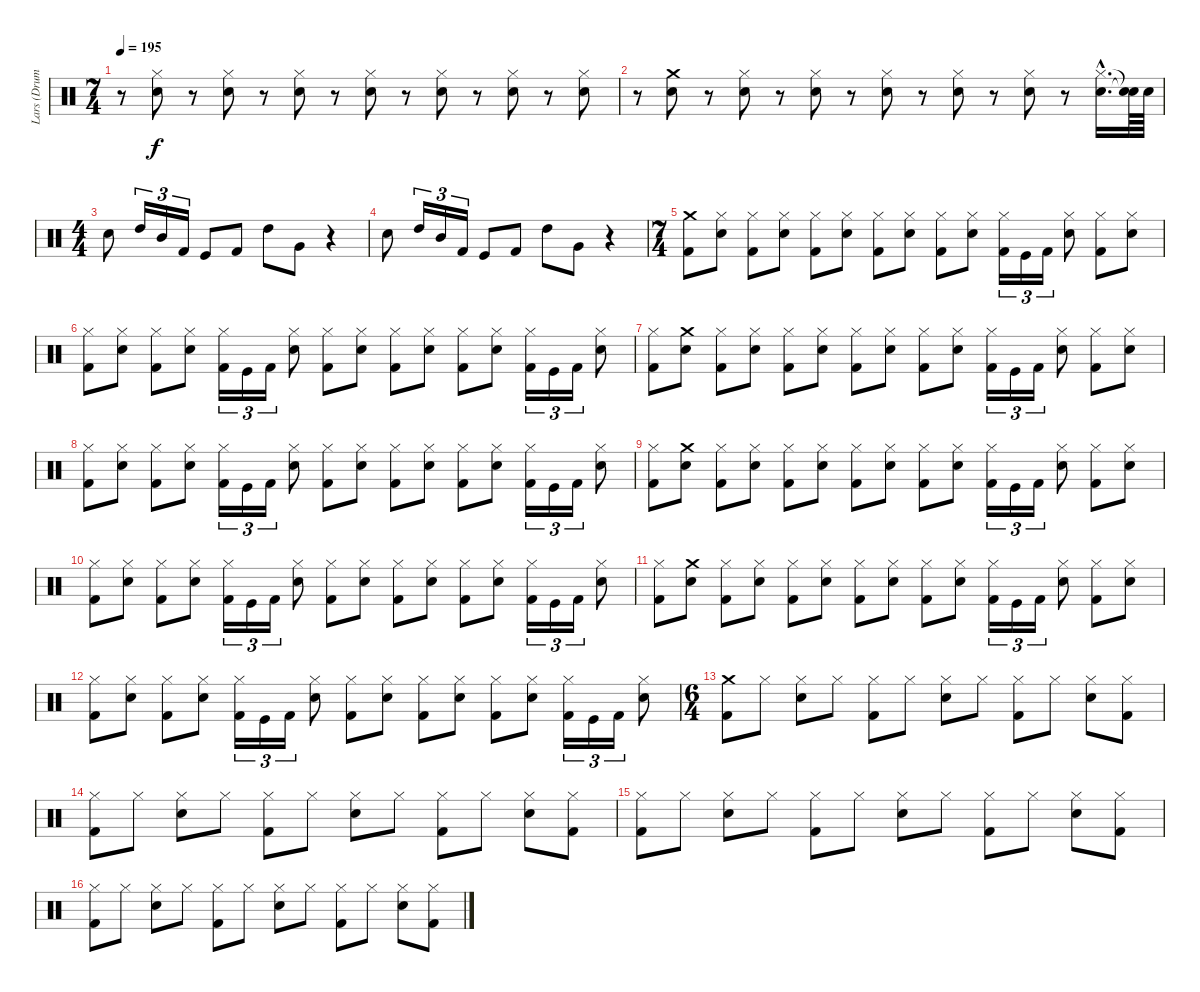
\track ("Lars (Drums)" "Lars (Drum") {instrument percussion}
\staff {score}
\articulation defaults
\ts (7 4)
\tempo 195
\clef neutral
\ks c
r.8{dy f} ("Snare (hit) 2" "Hi-Hat (closed)").8 r.8 ("Snare (hit) 2" "Hi-Hat (closed)").8 r.8 ("Snare (hit) 2" "Hi-Hat (closed)").8 r.8 ("Snare (hit) 2" "Hi-Hat (closed)").8 r.8 ("Snare (hit) 2" "Hi-Hat (closed)").8 r.8 ("Snare (hit) 2" "Hi-Hat (closed)").8 r.8 ("Snare (hit) 2" "Hi-Hat (closed)").8 |
r.8 ("Crash medium (hit)" "Snare (hit) 2").8 r.8 ("Snare (hit) 2" "Hi-Hat (closed)").8 r.8 ("Snare (hit) 2" "Hi-Hat (closed)").8 r.8 ("Snare (hit) 2" "Hi-Hat (closed)").8 r.8 ("Snare (hit) 2" "Hi-Hat (closed)").8 r.8 ("Snare (hit) 2" "Hi-Hat (closed)").8 r.8 ("Snare (hit) 2"{hac} "Hi-Hat (closed)"{hac}).16{d} ("Snare (hit)"{t} "Snare (hit)"{t}).64 "Snare (hit) 2".64 |
\ts (4 4)
"Snare (hit) 2".8 "High Tom (hit)".16{tu (3 2)} "Mid Tom (hit)".16{tu (3 2)} "Kick (hit) 2".16{tu (3 2)} "Kick (hit)".8 "Kick (hit) 2".8 "High Tom (hit)".8 "Very Low Tom (hit)".8 r.4 |
"Snare (hit) 2".8 "High Tom (hit)".16{tu (3 2)} "Mid Tom (hit)".16{tu (3 2)} "Kick (hit) 2".16{tu (3 2)} "Kick (hit)".8 "Kick (hit) 2".8 "High Tom (hit)".8 "Very Low Tom (hit)".8 r.4 |
\ts (7 4)
("Crash medium (hit)" "Kick (hit) 2").8 ("Snare (hit) 2" "Hi-Hat (closed)").8 ("Hi-Hat (closed)" "Kick (hit) 2").8 ("Snare (hit) 2" "Hi-Hat (closed)").8 ("Hi-Hat (closed)" "Kick (hit) 2").8 ("Snare (hit) 2" "Hi-Hat (closed)").8 ("Hi-Hat (closed)" "Kick (hit) 2").8 ("Snare (hit) 2" "Hi-Hat (closed)").8 ("Hi-Hat (closed)" "Kick (hit) 2").8 ("Snare (hit) 2" "Hi-Hat (closed)").8 ("Hi-Hat (closed)" "Kick (hit) 2").16{tu (3 2)} "Kick (hit)".16{tu (3 2)} "Kick (hit) 2".16{tu (3 2)} ("Snare (hit) 2" "Hi-Hat (closed)").8 ("Hi-Hat (closed)" "Kick (hit) 2").8 ("Snare (hit) 2" "Hi-Hat (closed)").8 |
("Hi-Hat (closed)" "Kick (hit) 2").8 ("Snare (hit) 2" "Hi-Hat (closed)").8 ("Hi-Hat (closed)" "Kick (hit) 2").8 ("Snare (hit) 2" "Hi-Hat (closed)").8 ("Hi-Hat (closed)" "Kick (hit) 2").16{tu (3 2)} "Kick (hit)".16{tu (3 2)} "Kick (hit) 2".16{tu (3 2)} ("Snare (hit) 2" "Hi-Hat (closed)").8 ("Hi-Hat (closed)" "Kick (hit) 2").8 ("Snare (hit) 2" "Hi-Hat (closed)").8 ("Hi-Hat (closed)" "Kick (hit) 2").8 ("Snare (hit) 2" "Hi-Hat (closed)").8 ("Kick (hit) 2" "Hi-Hat (closed)").8 ("Snare (hit) 2" "Hi-Hat (closed)").8 ("Kick (hit) 2" "Hi-Hat (closed)").16{tu (3 2)} "Kick (hit)".16{tu (3 2)} "Kick (hit) 2".16{tu (3 2)} ("Snare (hit) 2" "Hi-Hat (closed)").8 |
("Hi-Hat (closed)" "Kick (hit) 2").8 ("Crash medium (hit)" "Snare (hit) 2").8 ("Hi-Hat (closed)" "Kick (hit) 2").8 ("Snare (hit) 2" "Hi-Hat (closed)").8 ("Hi-Hat (closed)" "Kick (hit) 2").8 ("Snare (hit) 2" "Hi-Hat (closed)").8 ("Hi-Hat (closed)" "Kick (hit) 2").8 ("Snare (hit) 2" "Hi-Hat (closed)").8 ("Hi-Hat (closed)" "Kick (hit) 2").8 ("Snare (hit) 2" "Hi-Hat (closed)").8 ("Hi-Hat (closed)" "Kick (hit) 2").16{tu (3 2)} "Kick (hit)".16{tu (3 2)} "Kick (hit) 2".16{tu (3 2)} ("Snare (hit) 2" "Hi-Hat (closed)").8 ("Hi-Hat (closed)" "Kick (hit) 2").8 ("Snare (hit) 2" "Hi-Hat (closed)").8 |
("Hi-Hat (closed)" "Kick (hit) 2").8 ("Snare (hit) 2" "Hi-Hat (closed)").8 ("Hi-Hat (closed)" "Kick (hit) 2").8 ("Snare (hit) 2" "Hi-Hat (closed)").8 ("Hi-Hat (closed)" "Kick (hit) 2").16{tu (3 2)} "Kick (hit)".16{tu (3 2)} "Kick (hit) 2".16{tu (3 2)} ("Snare (hit) 2" "Hi-Hat (closed)").8 ("Hi-Hat (closed)" "Kick (hit) 2").8 ("Snare (hit) 2" "Hi-Hat (closed)").8 ("Hi-Hat (closed)" "Kick (hit) 2").8 ("Snare (hit) 2" "Hi-Hat (closed)").8 ("Kick (hit) 2" "Hi-Hat (closed)").8 ("Snare (hit) 2" "Hi-Hat (closed)").8 ("Kick (hit) 2" "Hi-Hat (closed)").16{tu (3 2)} "Kick (hit)".16{tu (3 2)} "Kick (hit) 2".16{tu (3 2)} ("Snare (hit) 2" "Hi-Hat (closed)").8 |
("Hi-Hat (closed)" "Kick (hit) 2").8 ("Crash medium (hit)" "Snare (hit) 2").8 ("Hi-Hat (closed)" "Kick (hit) 2").8 ("Snare (hit) 2" "Hi-Hat (closed)").8 ("Hi-Hat (closed)" "Kick (hit) 2").8 ("Snare (hit) 2" "Hi-Hat (closed)").8 ("Hi-Hat (closed)" "Kick (hit) 2").8 ("Snare (hit) 2" "Hi-Hat (closed)").8 ("Hi-Hat (closed)" "Kick (hit) 2").8 ("Snare (hit) 2" "Hi-Hat (closed)").8 ("Hi-Hat (closed)" "Kick (hit) 2").16{tu (3 2)} "Kick (hit)".16{tu (3 2)} "Kick (hit) 2".16{tu (3 2)} ("Snare (hit) 2" "Hi-Hat (closed)").8 ("Hi-Hat (closed)" "Kick (hit) 2").8 ("Snare (hit) 2" "Hi-Hat (closed)").8 |
("Hi-Hat (closed)" "Kick (hit) 2").8 ("Snare (hit) 2" "Hi-Hat (closed)").8 ("Hi-Hat (closed)" "Kick (hit) 2").8 ("Snare (hit) 2" "Hi-Hat (closed)").8 ("Hi-Hat (closed)" "Kick (hit) 2").16{tu (3 2)} "Kick (hit)".16{tu (3 2)} "Kick (hit) 2".16{tu (3 2)} ("Snare (hit) 2" "Hi-Hat (closed)").8 ("Hi-Hat (closed)" "Kick (hit) 2").8 ("Snare (hit) 2" "Hi-Hat (closed)").8 ("Hi-Hat (closed)" "Kick (hit) 2").8 ("Snare (hit) 2" "Hi-Hat (closed)").8 ("Kick (hit) 2" "Hi-Hat (closed)").8 ("Snare (hit) 2" "Hi-Hat (closed)").8 ("Kick (hit) 2" "Hi-Hat (closed)").16{tu (3 2)} "Kick (hit)".16{tu (3 2)} "Kick (hit) 2".16{tu (3 2)} ("Snare (hit) 2" "Hi-Hat (closed)").8 |
("Hi-Hat (closed)" "Kick (hit) 2").8 ("Crash medium (hit)" "Snare (hit) 2").8 ("Hi-Hat (closed)" "Kick (hit) 2").8 ("Snare (hit) 2" "Hi-Hat (closed)").8 ("Hi-Hat (closed)" "Kick (hit) 2").8 ("Snare (hit) 2" "Hi-Hat (closed)").8 ("Hi-Hat (closed)" "Kick (hit) 2").8 ("Snare (hit) 2" "Hi-Hat (closed)").8 ("Hi-Hat (closed)" "Kick (hit) 2").8 ("Snare (hit) 2" "Hi-Hat (closed)").8 ("Hi-Hat (closed)" "Kick (hit) 2").16{tu (3 2)} "Kick (hit)".16{tu (3 2)} "Kick (hit) 2".16{tu (3 2)} ("Snare (hit) 2" "Hi-Hat (closed)").8 ("Hi-Hat (closed)" "Kick (hit) 2").8 ("Snare (hit) 2" "Hi-Hat (closed)").8 |
("Hi-Hat (closed)" "Kick (hit) 2").8 ("Snare (hit) 2" "Hi-Hat (closed)").8 ("Hi-Hat (closed)" "Kick (hit) 2").8 ("Snare (hit) 2" "Hi-Hat (closed)").8 ("Hi-Hat (closed)" "Kick (hit) 2").16{tu (3 2)} "Kick (hit)".16{tu (3 2)} "Kick (hit) 2".16{tu (3 2)} ("Snare (hit) 2" "Hi-Hat (closed)").8 ("Hi-Hat (closed)" "Kick (hit) 2").8 ("Snare (hit) 2" "Hi-Hat (closed)").8 ("Hi-Hat (closed)" "Kick (hit) 2").8 ("Snare (hit) 2" "Hi-Hat (closed)").8 ("Kick (hit) 2" "Hi-Hat (closed)").8 ("Snare (hit) 2" "Hi-Hat (closed)").8 ("Kick (hit) 2" "Hi-Hat (closed)").16{tu (3 2)} "Kick (hit)".16{tu (3 2)} "Kick (hit) 2".16{tu (3 2)} ("Snare (hit) 2" "Hi-Hat (closed)").8 |
\ts (6 4)
("Kick (hit) 2" "Crash medium (hit)").8 "Hi-Hat (closed)".8 ("Snare (hit) 2" "Hi-Hat (closed)").8 "Hi-Hat (closed)".8 ("Kick (hit) 2" "Hi-Hat (closed)").8 "Hi-Hat (closed)".8 ("Snare (hit) 2" "Hi-Hat (closed)").8 "Hi-Hat (closed)".8 ("Kick (hit) 2" "Hi-Hat (closed)").8 "Hi-Hat (closed)".8 ("Snare (hit) 2" "Hi-Hat (closed)").8 ("Kick (hit) 2" "Hi-Hat (closed)").8 |
("Hi-Hat (closed)" "Kick (hit) 2").8 "Hi-Hat (closed)".8 ("Snare (hit) 2" "Hi-Hat (closed)").8 "Hi-Hat (closed)".8 ("Kick (hit) 2" "Hi-Hat (closed)").8 "Hi-Hat (closed)".8 ("Snare (hit) 2" "Hi-Hat (closed)").8 "Hi-Hat (closed)".8 ("Kick (hit) 2" "Hi-Hat (closed)").8 "Hi-Hat (closed)".8 ("Snare (hit) 2" "Hi-Hat (closed)").8 ("Kick (hit) 2" "Hi-Hat (closed)").8 |
("Hi-Hat (closed)" "Kick (hit) 2").8 "Hi-Hat (closed)".8 ("Snare (hit) 2" "Hi-Hat (closed)").8 "Hi-Hat (closed)".8 ("Kick (hit) 2" "Hi-Hat (closed)").8 "Hi-Hat (closed)".8 ("Snare (hit) 2" "Hi-Hat (closed)").8 "Hi-Hat (closed)".8 ("Kick (hit) 2" "Hi-Hat (closed)").8 "Hi-Hat (closed)".8 ("Snare (hit) 2" "Hi-Hat (closed)").8 ("Kick (hit) 2" "Hi-Hat (closed)").8 |
("Hi-Hat (closed)" "Kick (hit) 2").8 "Hi-Hat (closed)".8 ("Snare (hit) 2" "Hi-Hat (closed)").8 "Hi-Hat (closed)".8 ("Kick (hit) 2" "Hi-Hat (closed)").8 "Hi-Hat (closed)".8 ("Snare (hit) 2" "Hi-Hat (closed)").8 "Hi-Hat (closed)".8 ("Kick (hit) 2" "Hi-Hat (closed)").8 "Hi-Hat (closed)".8 ("Snare (hit) 2" "Hi-Hat (closed)").8 ("Kick (hit) 2" "Hi-Hat (closed)").8
